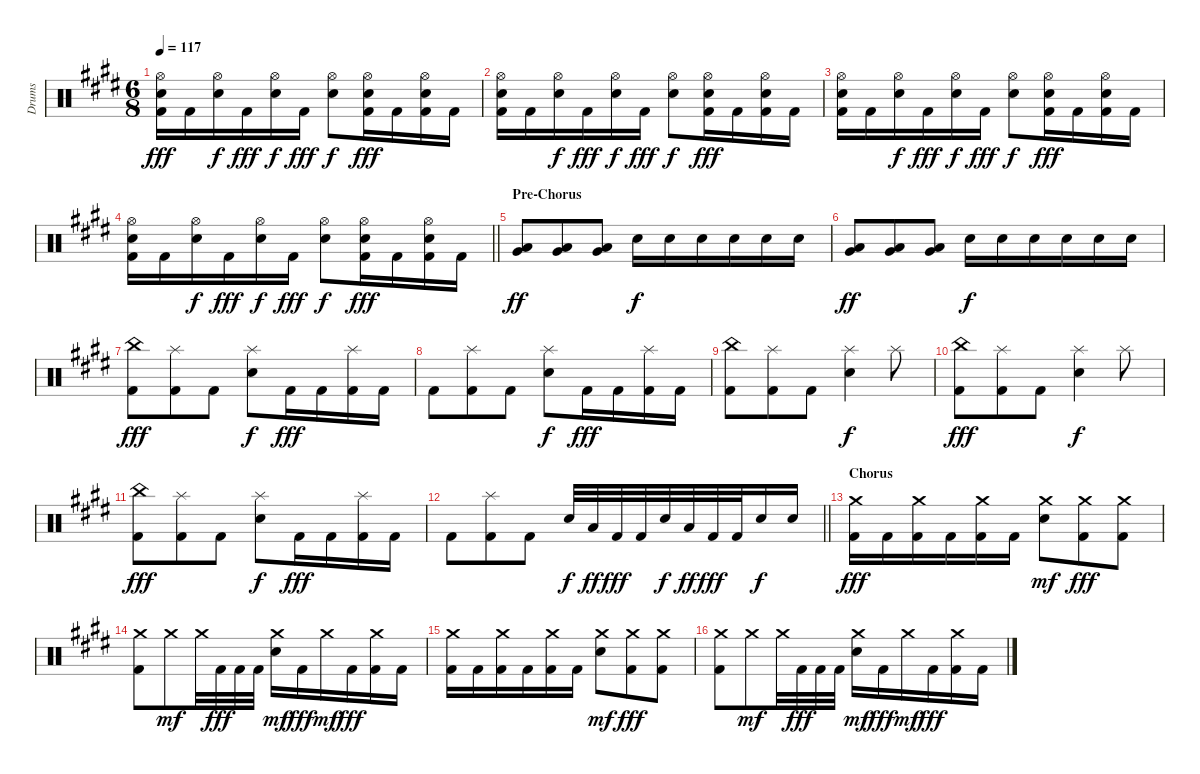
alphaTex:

\track ("Drums" "Drums") {instrument percussion}
\staff {score}
\articulation defaults
\ts (6 8)
\tempo 117
\clef neutral
\ks c#minor
("Hi-Hat (open)" "Electric Snare (hit)" "Kick (hit) 2").16{dy fff} "Kick (hit) 2".16 ("Hi-Hat (open)" "Electric Snare (hit)").16{dy f} "Kick (hit) 2".16{dy fff} ("Hi-Hat (open)" "Electric Snare (hit)").16{dy f} "Kick (hit) 2".16{dy fff} ("Hi-Hat (open)" "Electric Snare (hit)").8{dy f} ("Hi-Hat (open)" "Electric Snare (hit)" "Kick (hit) 2").16{dy fff} "Kick (hit) 2".16 ("Hi-Hat (open)" "Electric Snare (hit)" "Kick (hit) 2").16 "Kick (hit) 2".16 |
("Hi-Hat (open)" "Electric Snare (hit)" "Kick (hit) 2").16 "Kick (hit) 2".16 ("Hi-Hat (open)" "Electric Snare (hit)").16{dy f} "Kick (hit) 2".16{dy fff} ("Hi-Hat (open)" "Electric Snare (hit)").16{dy f} "Kick (hit) 2".16{dy fff} ("Hi-Hat (open)" "Electric Snare (hit)").8{dy f} ("Hi-Hat (open)" "Electric Snare (hit)" "Kick (hit) 2").16{dy fff} "Kick (hit) 2".16 ("Hi-Hat (open)" "Electric Snare (hit)" "Kick (hit) 2").16 "Kick (hit) 2".16 |
("Hi-Hat (open)" "Electric Snare (hit)" "Kick (hit) 2").16 "Kick (hit) 2".16 ("Hi-Hat (open)" "Electric Snare (hit)").16{dy f} "Kick (hit) 2".16{dy fff} ("Hi-Hat (open)" "Electric Snare (hit)").16{dy f} "Kick (hit) 2".16{dy fff} ("Hi-Hat (open)" "Electric Snare (hit)").8{dy f} ("Hi-Hat (open)" "Electric Snare (hit)" "Kick (hit) 2").16{dy fff} "Kick (hit) 2".16 ("Hi-Hat (open)" "Electric Snare (hit)" "Kick (hit) 2").16 "Kick (hit) 2".16 |
\barLineRight lightlight
("Hi-Hat (open)" "Electric Snare (hit)" "Kick (hit) 2").16 "Kick (hit) 2".16 ("Hi-Hat (open)" "Electric Snare (hit)").16{dy f} "Kick (hit) 2".16{dy fff} ("Hi-Hat (open)" "Electric Snare (hit)").16{dy f} "Kick (hit) 2".16{dy fff} ("Hi-Hat (open)" "Electric Snare (hit)").8{dy f} ("Hi-Hat (open)" "Electric Snare (hit)" "Kick (hit) 2").16{dy fff} "Kick (hit) 2".16 ("Hi-Hat (open)" "Electric Snare (hit)" "Kick (hit) 2").16 "Kick (hit) 2".16 |
\section ("" "Pre-Chorus")
("Very Low Tom (hit)" "Low Floor Tom (hit)").8{dy ff} ("Very Low Tom (hit)" "Low Floor Tom (hit)").8 ("Very Low Tom (hit)" "Low Floor Tom (hit)").8 "Electric Snare (hit)".16{dy f} "Electric Snare (hit)".16 "Electric Snare (hit)".16 "Electric Snare (hit)".16 "Electric Snare (hit)".16 "Electric Snare (hit)".16 |
("Very Low Tom (hit)" "Low Floor Tom (hit)").8{dy ff} ("Very Low Tom (hit)" "Low Floor Tom (hit)").8 ("Very Low Tom (hit)" "Low Floor Tom (hit)").8 "Electric Snare (hit)".16{dy f} "Electric Snare (hit)".16 "Electric Snare (hit)".16 "Electric Snare (hit)".16 "Electric Snare (hit)".16 "Electric Snare (hit)".16 |
("China (hit)" "Kick (hit) 2").8{dy fff} ("Splash (hit)" "Kick (hit) 2").8 "Kick (hit) 2".8 ("Splash (hit)" "Electric Snare (hit)").8{dy f} "Kick (hit) 2".16{dy fff} "Kick (hit) 2".16 ("Splash (hit)" "Kick (hit) 2").16 "Kick (hit) 2".16 |
"Kick (hit) 2".8 ("Splash (hit)" "Kick (hit) 2").8 "Kick (hit) 2".8 ("Splash (hit)" "Electric Snare (hit)").8{dy f} "Kick (hit) 2".16{dy fff} "Kick (hit) 2".16 ("Splash (hit)" "Kick (hit) 2").16 "Kick (hit) 2".16 |
("China (hit)" "Kick (hit) 2").8 ("Splash (hit)" "Kick (hit) 2").8 "Kick (hit) 2".8 ("Splash (hit)" "Electric Snare (hit)").4{dy f} "Splash (hit)".8 |
("China (hit)" "Kick (hit) 2").8{dy fff} ("Splash (hit)" "Kick (hit) 2").8 "Kick (hit) 2".8 ("Splash (hit)" "Electric Snare (hit)").4{dy f} "Splash (hit)".8 |
("China (hit)" "Kick (hit) 2").8{dy fff} ("Splash (hit)" "Kick (hit) 2").8 "Kick (hit) 2".8 ("Splash (hit)" "Electric Snare (hit)").8{dy f} "Kick (hit) 2".16{dy fff} "Kick (hit) 2".16 ("Splash (hit)" "Kick (hit) 2").16 "Kick (hit) 2".16 |
\barLineRight lightlight "Kick (hit) 2".8
("Splash (hit)" "Kick (hit) 2").8 "Kick (hit) 2".8 "Electric Snare (hit)".32{dy f} "Low Tom (hit)".32{dy ff} "Kick (hit) 2".32{dy fff} "Kick (hit) 2".32 "Electric Snare (hit)".32{dy f} "Low Tom (hit)".32{dy ff} "Kick (hit) 2".32{dy fff} "Kick (hit) 2".32 "Electric Snare (hit)".16{dy f} "Electric Snare (hit)".16 |
\section ("" "Chorus")
("Crash medium (hit)" "Kick (hit) 2").16{dy fff} "Kick (hit) 2".16 ("Crash medium (hit)" "Kick (hit) 2").16 "Kick (hit) 2".16 ("Crash medium (hit)" "Kick (hit) 2").16 "Kick (hit) 2".16 ("Crash medium (hit)" "Electric Snare (hit)").8{dy mf} ("Crash medium (hit)" "Kick (hit) 2").8{dy fff} ("Crash medium (hit)" "Kick (hit) 2").8 |
("Crash medium (hit)" "Kick (hit) 2").8 "Crash medium (hit)".8{dy mf} "Crash medium (hit)".32 "Kick (hit) 2".32{dy fff} "Kick (hit) 2".32 "Kick (hit) 2".32 ("Crash medium (hit)" "Electric Snare (hit)").16{dy mf} "Kick (hit) 2".16{dy fff} "Crash medium (hit)".16{dy mf} "Kick (hit) 2".16{dy fff} ("Crash medium (hit)" "Kick (hit) 2").16 "Kick (hit) 2".16 |
("Crash medium (hit)" "Kick (hit) 2").16 "Kick (hit) 2".16 ("Crash medium (hit)" "Kick (hit) 2").16 "Kick (hit) 2".16 ("Crash medium (hit)" "Kick (hit) 2").16 "Kick (hit) 2".16 ("Crash medium (hit)" "Electric Snare (hit)").8{dy mf} ("Crash medium (hit)" "Kick (hit) 2").8{dy fff} ("Crash medium (hit)" "Kick (hit) 2").8 |
("Crash medium (hit)" "Kick (hit) 2").8 "Crash medium (hit)".8{dy mf} "Crash medium (hit)".32 "Kick (hit) 2".32{dy fff} "Kick (hit) 2".32 "Kick (hit) 2".32 ("Crash medium (hit)" "Electric Snare (hit)").16{dy mf} "Kick (hit) 2".16{dy fff} "Crash medium (hit)".16{dy mf} "Kick (hit) 2".16{dy fff} ("Crash medium (hit)" "Kick (hit) 2").16 "Kick (hit) 2".16
